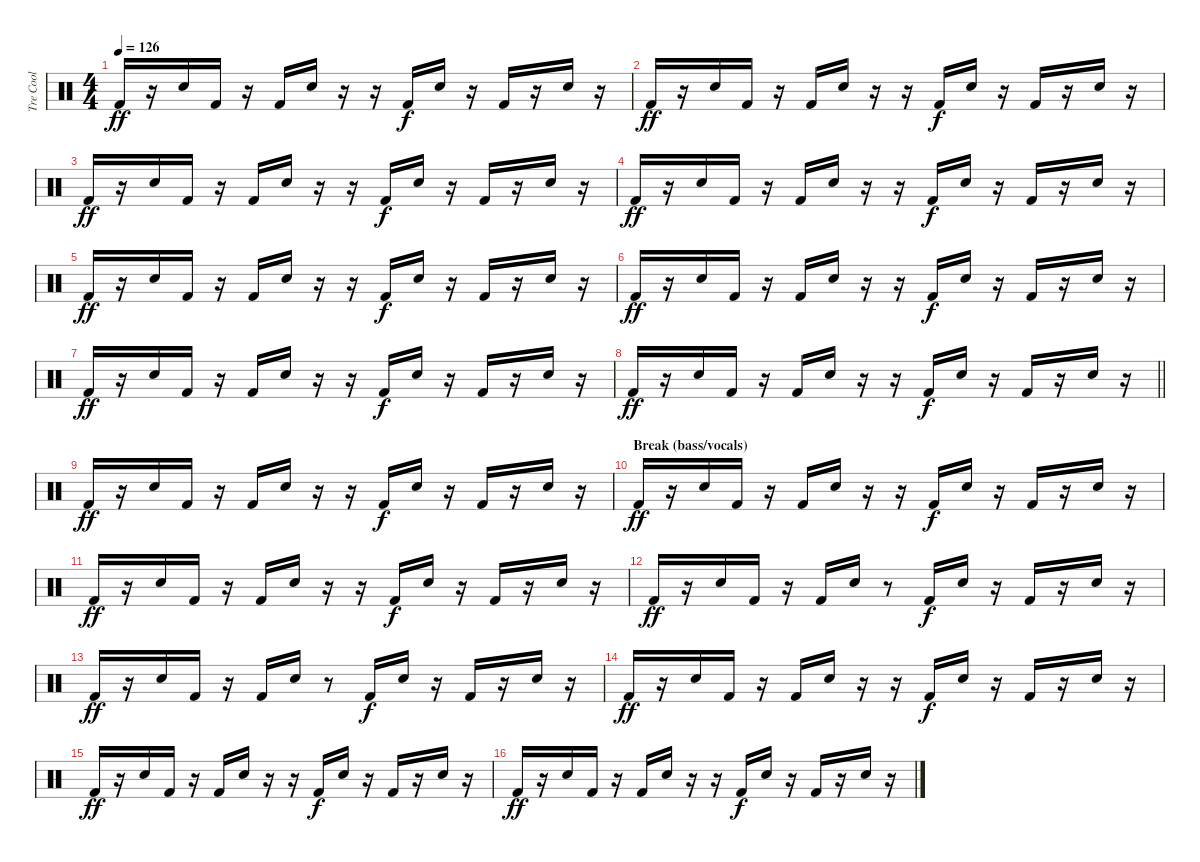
\track ("Tre Cool" "Tre Cool") {instrument percussion}
\staff {score}
\articulation defaults
\ts (4 4)
\tempo 126
\clef neutral
\ks c "Kick (hit) 2".16{dy ff}
r.16 "Snare (hit) 2".16 "Kick (hit) 2".16 r.16 "Kick (hit) 2".16 "Snare (hit) 2".16 r.16 r.16 "Kick (hit) 2".16{dy f} "Snare (hit) 2".16 r.16 "Kick (hit) 2".16 r.16 "Snare (hit) 2".16 r.16 |
"Kick (hit) 2".16{dy ff} r.16 "Snare (hit) 2".16 "Kick (hit) 2".16 r.16 "Kick (hit) 2".16 "Snare (hit) 2".16 r.16 r.16 "Kick (hit) 2".16{dy f} "Snare (hit) 2".16 r.16 "Kick (hit) 2".16 r.16 "Snare (hit) 2".16 r.16 |
"Kick (hit) 2".16{dy ff} r.16 "Snare (hit) 2".16 "Kick (hit) 2".16 r.16 "Kick (hit) 2".16 "Snare (hit) 2".16 r.16 r.16 "Kick (hit) 2".16{dy f} "Snare (hit) 2".16 r.16 "Kick (hit) 2".16 r.16 "Snare (hit) 2".16 r.16 |
"Kick (hit) 2".16{dy ff} r.16 "Snare (hit) 2".16 "Kick (hit) 2".16 r.16 "Kick (hit) 2".16 "Snare (hit) 2".16 r.16 r.16 "Kick (hit) 2".16{dy f} "Snare (hit) 2".16 r.16 "Kick (hit) 2".16 r.16 "Snare (hit) 2".16 r.16 |
"Kick (hit) 2".16{dy ff} r.16 "Snare (hit) 2".16 "Kick (hit) 2".16 r.16 "Kick (hit) 2".16 "Snare (hit) 2".16 r.16 r.16 "Kick (hit) 2".16{dy f} "Snare (hit) 2".16 r.16 "Kick (hit) 2".16 r.16 "Snare (hit) 2".16 r.16 |
"Kick (hit) 2".16{dy ff} r.16 "Snare (hit) 2".16 "Kick (hit) 2".16 r.16 "Kick (hit) 2".16 "Snare (hit) 2".16 r.16 r.16 "Kick (hit) 2".16{dy f} "Snare (hit) 2".16 r.16 "Kick (hit) 2".16 r.16 "Snare (hit) 2".16 r.16 |
"Kick (hit) 2".16{dy ff} r.16 "Snare (hit) 2".16 "Kick (hit) 2".16 r.16 "Kick (hit) 2".16 "Snare (hit) 2".16 r.16 r.16 "Kick (hit) 2".16{dy f} "Snare (hit) 2".16 r.16 "Kick (hit) 2".16 r.16 "Snare (hit) 2".16 r.16 |
\barLineRight lightlight "Kick (hit) 2".16{dy ff}
r.16 "Snare (hit) 2".16 "Kick (hit) 2".16 r.16 "Kick (hit) 2".16 "Snare (hit) 2".16 r.16 r.16 "Kick (hit) 2".16{dy f} "Snare (hit) 2".16 r.16 "Kick (hit) 2".16 r.16 "Snare (hit) 2".16 r.16 |
"Kick (hit) 2".16{dy ff} r.16 "Snare (hit) 2".16 "Kick (hit) 2".16 r.16 "Kick (hit) 2".16 "Snare (hit) 2".16 r.16 r.16 "Kick (hit) 2".16{dy f} "Snare (hit) 2".16 r.16 "Kick (hit) 2".16 r.16 "Snare (hit) 2".16 r.16 |
\section ("" "Break (bass/vocals)")
"Kick (hit) 2".16{dy ff} r.16 "Snare (hit) 2".16 "Kick (hit) 2".16 r.16 "Kick (hit) 2".16 "Snare (hit) 2".16 r.16 r.16 "Kick (hit) 2".16{dy f} "Snare (hit) 2".16 r.16 "Kick (hit) 2".16 r.16 "Snare (hit) 2".16 r.16 |
"Kick (hit) 2".16{dy ff} r.16 "Snare (hit) 2".16 "Kick (hit) 2".16 r.16 "Kick (hit) 2".16 "Snare (hit) 2".16 r.16 r.16 "Kick (hit) 2".16{dy f} "Snare (hit) 2".16 r.16 "Kick (hit) 2".16 r.16 "Snare (hit) 2".16 r.16 |
"Kick (hit) 2".16{dy ff} r.16 "Snare (hit) 2".16 "Kick (hit) 2".16 r.16 "Kick (hit) 2".16 "Snare (hit) 2".16 r.8 "Kick (hit) 2".16{dy f} "Snare (hit) 2".16 r.16 "Kick (hit) 2".16 r.16 "Snare (hit) 2".16 r.16 |
"Kick (hit) 2".16{dy ff} r.16 "Snare (hit) 2".16 "Kick (hit) 2".16 r.16 "Kick (hit) 2".16 "Snare (hit) 2".16 r.8 "Kick (hit) 2".16{dy f} "Snare (hit) 2".16 r.16 "Kick (hit) 2".16 r.16 "Snare (hit) 2".16 r.16 |
"Kick (hit) 2".16{dy ff} r.16 "Snare (hit) 2".16 "Kick (hit) 2".16 r.16 "Kick (hit) 2".16 "Snare (hit) 2".16 r.16 r.16 "Kick (hit) 2".16{dy f} "Snare (hit) 2".16 r.16 "Kick (hit) 2".16 r.16 "Snare (hit) 2".16 r.16 |
"Kick (hit) 2".16{dy ff} r.16 "Snare (hit) 2".16 "Kick (hit) 2".16 r.16 "Kick (hit) 2".16 "Snare (hit) 2".16 r.16 r.16 "Kick (hit) 2".16{dy f} "Snare (hit) 2".16 r.16 "Kick (hit) 2".16 r.16 "Snare (hit) 2".16 r.16 |
"Kick (hit) 2".16{dy ff} r.16 "Snare (hit) 2".16 "Kick (hit) 2".16 r.16 "Kick (hit) 2".16 "Snare (hit) 2".16 r.16 r.16 "Kick (hit) 2".16{dy f} "Snare (hit) 2".16 r.16 "Kick (hit) 2".16 r.16 "Snare (hit) 2".16 r.16
